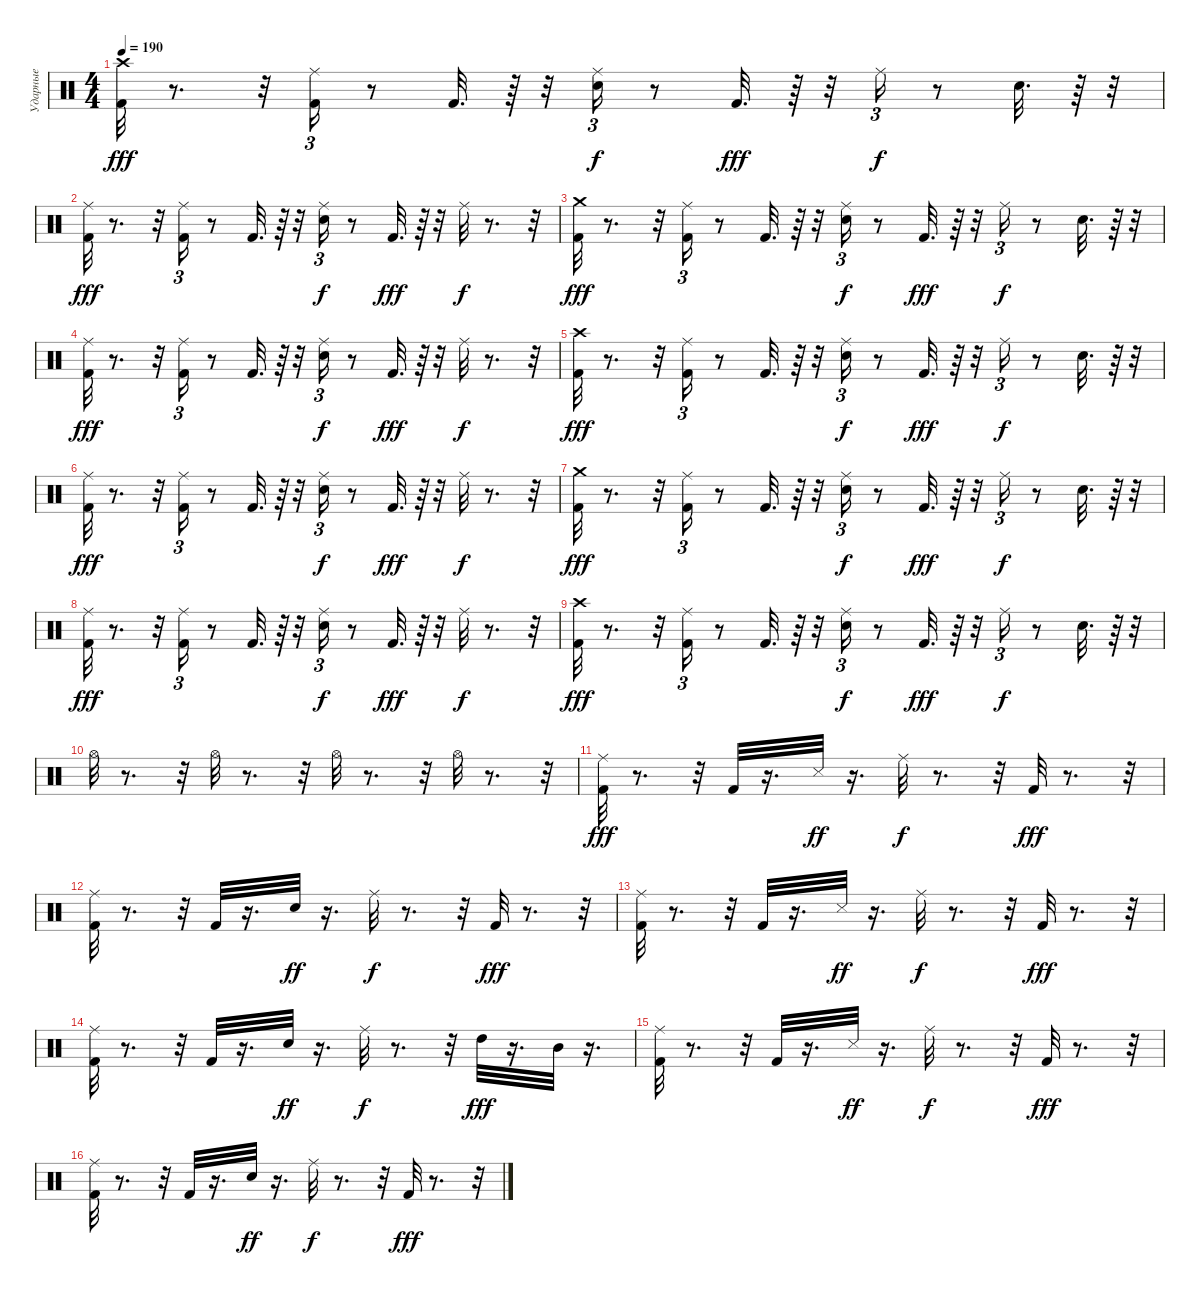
\track ("Ударные" "Ударные") {instrument percussion}
\staff {score}
\articulation defaults
\ts (4 4)
\tempo 190
\clef neutral
\ks c
("Kick (hit) 2" "Crash high (hit)").32{dy fff} r.8{d} r.32 ("Kick (hit) 2" "Ride (middle)").16{tu (3 2)} r.8 "Kick (hit) 2".32{d} r.64 r.32 ("Snare (hit) 2" "Ride (middle)").16{tu (3 2) dy f} r.8 "Kick (hit) 2".32{d dy fff} r.64 r.32 "Ride (middle)".16{tu (3 2) dy f} r.8 "Snare (hit) 2".32{d} r.64 r.32 |
("Ride (middle)" "Kick (hit) 2").32{dy fff} r.8{d} r.32 ("Ride (middle)" "Kick (hit) 2").16{tu (3 2)} r.8 "Kick (hit) 2".32{d} r.64 r.32 ("Ride (middle)" "Snare (hit) 2").16{tu (3 2) dy f} r.8 "Kick (hit) 2".32{d dy fff} r.64 r.32 "Ride (middle)".32{dy f} r.8{d} r.32 |
("Kick (hit) 2" "Crash medium (hit)").32{dy fff} r.8{d} r.32 ("Kick (hit) 2" "Ride (middle)").16{tu (3 2)} r.8 "Kick (hit) 2".32{d} r.64 r.32 ("Ride (middle)" "Snare (hit) 2").16{tu (3 2) dy f} r.8 "Kick (hit) 2".32{d dy fff} r.64 r.32 "Ride (middle)".16{tu (3 2) dy f} r.8 "Snare (hit) 2".32{d} r.64 r.32 |
("Ride (middle)" "Kick (hit) 2").32{dy fff} r.8{d} r.32 ("Ride (middle)" "Kick (hit) 2").16{tu (3 2)} r.8 "Kick (hit) 2".32{d} r.64 r.32 ("Snare (hit) 2" "Ride (middle)").16{tu (3 2) dy f} r.8 "Kick (hit) 2".32{d dy fff} r.64 r.32 "Ride (middle)".32{dy f} r.8{d} r.32 |
("Kick (hit) 2" "Crash high (hit)").32{dy fff} r.8{d} r.32 ("Kick (hit) 2" "Ride (middle)").16{tu (3 2)} r.8 "Kick (hit) 2".32{d} r.64 r.32 ("Snare (hit) 2" "Ride (middle)").16{tu (3 2) dy f} r.8 "Kick (hit) 2".32{d dy fff} r.64 r.32 "Ride (middle)".16{tu (3 2) dy f} r.8 "Snare (hit) 2".32{d} r.64 r.32 |
("Ride (middle)" "Kick (hit) 2").32{dy fff} r.8{d} r.32 ("Ride (middle)" "Kick (hit) 2").16{tu (3 2)} r.8 "Kick (hit) 2".32{d} r.64 r.32 ("Ride (middle)" "Snare (hit) 2").16{tu (3 2) dy f} r.8 "Kick (hit) 2".32{d dy fff} r.64 r.32 "Ride (middle)".32{dy f} r.8{d} r.32 |
("Kick (hit) 2" "Crash medium (hit)").32{dy fff} r.8{d} r.32 ("Kick (hit) 2" "Ride (middle)").16{tu (3 2)} r.8 "Kick (hit) 2".32{d} r.64 r.32 ("Ride (middle)" "Snare (hit) 2").16{tu (3 2) dy f} r.8 "Kick (hit) 2".32{d dy fff} r.64 r.32 "Ride (middle)".16{tu (3 2) dy f} r.8 "Snare (hit) 2".32{d} r.64 r.32 |
("Ride (middle)" "Kick (hit) 2").32{dy fff} r.8{d} r.32 ("Ride (middle)" "Kick (hit) 2").16{tu (3 2)} r.8 "Kick (hit) 2".32{d} r.64 r.32 ("Snare (hit) 2" "Ride (middle)").16{tu (3 2) dy f} r.8 "Kick (hit) 2".32{d dy fff} r.64 r.32 "Ride (middle)".32{dy f} r.8{d} r.32 |
("Kick (hit) 2" "Crash high (hit)").32{dy fff} r.8{d} r.32 ("Kick (hit) 2" "Ride (middle)").16{tu (3 2)} r.8 "Kick (hit) 2".32{d} r.64 r.32 ("Snare (hit) 2" "Ride (middle)").16{tu (3 2) dy f} r.8 "Kick (hit) 2".32{d dy fff} r.64 r.32 "Ride (middle)".16{tu (3 2) dy f} r.8 "Snare (hit) 2".32{d} r.64 r.32 |
"Hi-Hat (open)".32 r.8{d} r.32 "Hi-Hat (open)".32 r.8{d} r.32 "Hi-Hat (open)".32 r.8{d} r.32 "Hi-Hat (open)".32 r.8{d} r.32 |
("Ride (middle)" "Kick (hit) 2").32{dy fff} r.8{d} r.32 "Kick (hit) 2".32 r.16{d} "Snare (side stick) 3".32{dy ff} r.16{d} "Ride (middle)".32{dy f} r.8{d} r.32 "Kick (hit) 2".32{dy fff} r.8{d} r.32 |
("Ride (middle)" "Kick (hit) 2").32 r.8{d} r.32 "Kick (hit) 2".32 r.16{d} "Snare (hit) 2".32{dy ff} r.16{d} "Ride (middle)".32{dy f} r.8{d} r.32 "Kick (hit) 2".32{dy fff} r.8{d} r.32 |
("Kick (hit) 2" "Ride (middle)").32 r.8{d} r.32 "Kick (hit) 2".32 r.16{d} "Snare (side stick) 3".32{dy ff} r.16{d} "Ride (middle)".32{dy f} r.8{d} r.32 "Kick (hit) 2".32{dy fff} r.8{d} r.32 |
("Ride (middle)" "Kick (hit) 2").32 r.8{d} r.32 "Kick (hit) 2".32 r.16{d} "Snare (hit) 2".32{dy ff} r.16{d} "Ride (middle)".32{dy f} r.8{d} r.32 "High Tom (hit)".32{dy fff} r.16{d} "Mid Tom (hit)".32 r.16{d} |
("Ride (middle)" "Kick (hit) 2").32 r.8{d} r.32 "Kick (hit) 2".32 r.16{d} "Snare (side stick) 3".32{dy ff} r.16{d} "Ride (middle)".32{dy f} r.8{d} r.32 "Kick (hit) 2".32{dy fff} r.8{d} r.32 |
("Ride (middle)" "Kick (hit) 2").32 r.8{d} r.32 "Kick (hit) 2".32 r.16{d} "Snare (hit) 2".32{dy ff} r.16{d} "Ride (middle)".32{dy f} r.8{d} r.32 "Kick (hit) 2".32{dy fff} r.8{d} r.32
